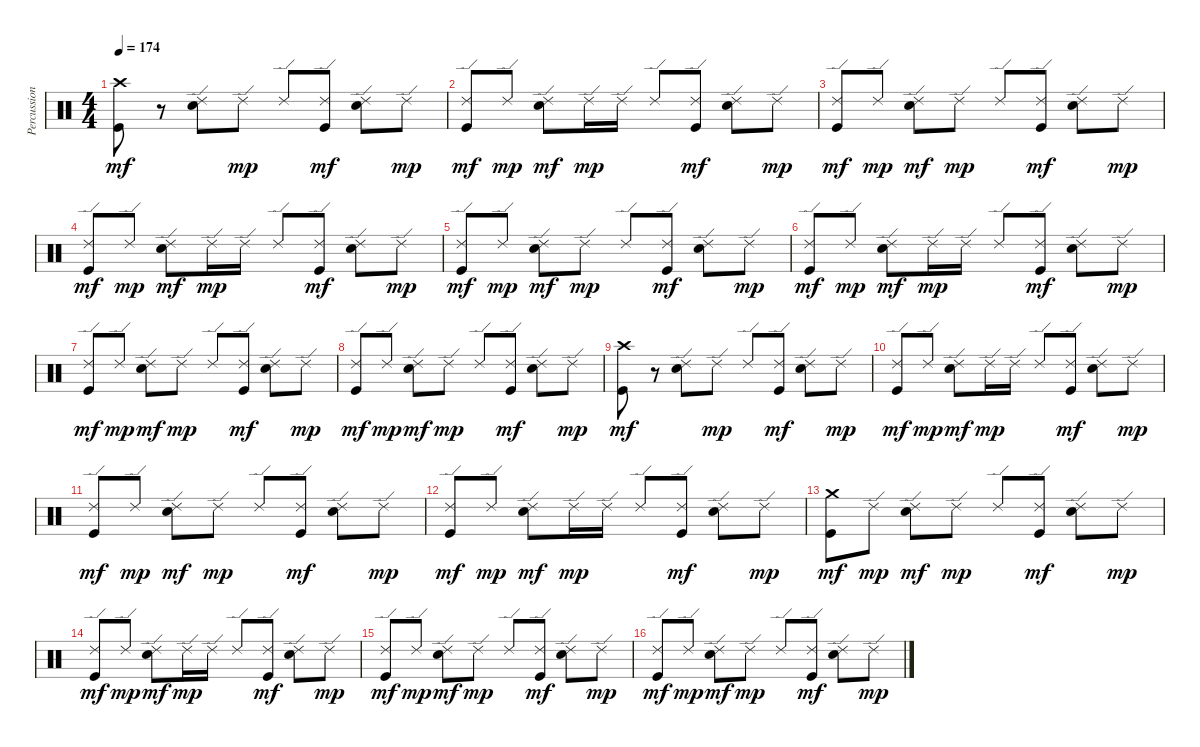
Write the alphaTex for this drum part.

\track ("Percussion" "Percussion") {instrument percussion}
\staff {score}
\articulation defaults
\ts (4 4)
\tempo 174
\clef neutral
\ks c
("Crash high (hit)" "Kick (hit)").8{dy mf} r.8 ("Ride (edge) 2" "Electric Snare (hit)").8 "Ride (edge) 2".8{dy mp} "Ride (edge) 2".8 ("Ride (edge) 2" "Kick (hit)").8{dy mf} ("Ride (edge) 2" "Electric Snare (hit)").8 "Ride (edge) 2".8{dy mp} |
("Ride (edge) 2" "Kick (hit)").8{dy mf} "Ride (edge) 2".8{dy mp} ("Ride (edge) 2" "Electric Snare (hit)").8{dy mf} "Ride (edge) 2".16{dy mp} "Ride (edge) 2".16 "Ride (edge) 2".8 ("Ride (edge) 2" "Kick (hit)").8{dy mf} ("Ride (edge) 2" "Electric Snare (hit)").8 "Ride (edge) 2".8{dy mp} |
("Ride (edge) 2" "Kick (hit)").8{dy mf} "Ride (edge) 2".8{dy mp} ("Ride (edge) 2" "Electric Snare (hit)").8{dy mf} "Ride (edge) 2".8{dy mp} "Ride (edge) 2".8 ("Ride (edge) 2" "Kick (hit)").8{dy mf} ("Ride (edge) 2" "Electric Snare (hit)").8 "Ride (edge) 2".8{dy mp} |
("Ride (edge) 2" "Kick (hit)").8{dy mf} "Ride (edge) 2".8{dy mp} ("Ride (edge) 2" "Electric Snare (hit)").8{dy mf} "Ride (edge) 2".16{dy mp} "Ride (edge) 2".16 "Ride (edge) 2".8 ("Ride (edge) 2" "Kick (hit)").8{dy mf} ("Ride (edge) 2" "Electric Snare (hit)").8 "Ride (edge) 2".8{dy mp} |
("Ride (edge) 2" "Kick (hit)").8{dy mf} "Ride (edge) 2".8{dy mp} ("Ride (edge) 2" "Electric Snare (hit)").8{dy mf} "Ride (edge) 2".8{dy mp} "Ride (edge) 2".8 ("Ride (edge) 2" "Kick (hit)").8{dy mf} ("Ride (edge) 2" "Electric Snare (hit)").8 "Ride (edge) 2".8{dy mp} |
("Ride (edge) 2" "Kick (hit)").8{dy mf} "Ride (edge) 2".8{dy mp} ("Ride (edge) 2" "Electric Snare (hit)").8{dy mf} "Ride (edge) 2".16{dy mp} "Ride (edge) 2".16 "Ride (edge) 2".8 ("Ride (edge) 2" "Kick (hit)").8{dy mf} ("Ride (edge) 2" "Electric Snare (hit)").8 "Ride (edge) 2".8{dy mp} |
("Ride (edge) 2" "Kick (hit)").8{dy mf} "Ride (edge) 2".8{dy mp} ("Ride (edge) 2" "Electric Snare (hit)").8{dy mf} "Ride (edge) 2".8{dy mp} "Ride (edge) 2".8 ("Ride (edge) 2" "Kick (hit)").8{dy mf} ("Ride (edge) 2" "Electric Snare (hit)").8 "Ride (edge) 2".8{dy mp} |
("Ride (edge) 2" "Kick (hit)").8{dy mf} "Ride (edge) 2".8{dy mp} ("Ride (edge) 2" "Electric Snare (hit)").8{dy mf} "Ride (edge) 2".8{dy mp} "Ride (edge) 2".8 ("Ride (edge) 2" "Kick (hit)").8{dy mf} ("Ride (edge) 2" "Electric Snare (hit)").8 "Ride (edge) 2".8{dy mp} |
("Crash high (hit)" "Kick (hit)").8{dy mf} r.8 ("Ride (edge) 2" "Electric Snare (hit)").8 "Ride (edge) 2".8{dy mp} "Ride (edge) 2".8 ("Ride (edge) 2" "Kick (hit)").8{dy mf} ("Ride (edge) 2" "Electric Snare (hit)").8 "Ride (edge) 2".8{dy mp} |
("Ride (edge) 2" "Kick (hit)").8{dy mf} "Ride (edge) 2".8{dy mp} ("Ride (edge) 2" "Electric Snare (hit)").8{dy mf} "Ride (edge) 2".16{dy mp} "Ride (edge) 2".16 "Ride (edge) 2".8 ("Ride (edge) 2" "Kick (hit)").8{dy mf} ("Ride (edge) 2" "Electric Snare (hit)").8 "Ride (edge) 2".8{dy mp} |
("Ride (edge) 2" "Kick (hit)").8{dy mf} "Ride (edge) 2".8{dy mp} ("Ride (edge) 2" "Electric Snare (hit)").8{dy mf} "Ride (edge) 2".8{dy mp} "Ride (edge) 2".8 ("Ride (edge) 2" "Kick (hit)").8{dy mf} ("Ride (edge) 2" "Electric Snare (hit)").8 "Ride (edge) 2".8{dy mp} |
("Ride (edge) 2" "Kick (hit)").8{dy mf} "Ride (edge) 2".8{dy mp} ("Ride (edge) 2" "Electric Snare (hit)").8{dy mf} "Ride (edge) 2".16{dy mp} "Ride (edge) 2".16 "Ride (edge) 2".8 ("Ride (edge) 2" "Kick (hit)").8{dy mf} ("Ride (edge) 2" "Electric Snare (hit)").8 "Ride (edge) 2".8{dy mp} |
("Crash medium (hit)" "Kick (hit)").8{dy mf} "Ride (edge) 2".8{dy mp} ("Ride (edge) 2" "Electric Snare (hit)").8{dy mf} "Ride (edge) 2".8{dy mp} "Ride (edge) 2".8 ("Ride (edge) 2" "Kick (hit)").8{dy mf} ("Ride (edge) 2" "Electric Snare (hit)").8 "Ride (edge) 2".8{dy mp} |
("Ride (edge) 2" "Kick (hit)").8{dy mf} "Ride (edge) 2".8{dy mp} ("Ride (edge) 2" "Electric Snare (hit)").8{dy mf} "Ride (edge) 2".16{dy mp} "Ride (edge) 2".16 "Ride (edge) 2".8 ("Ride (edge) 2" "Kick (hit)").8{dy mf} ("Ride (edge) 2" "Electric Snare (hit)").8 "Ride (edge) 2".8{dy mp} |
("Ride (edge) 2" "Kick (hit)").8{dy mf} "Ride (edge) 2".8{dy mp} ("Ride (edge) 2" "Electric Snare (hit)").8{dy mf} "Ride (edge) 2".8{dy mp} "Ride (edge) 2".8 ("Ride (edge) 2" "Kick (hit)").8{dy mf} ("Ride (edge) 2" "Electric Snare (hit)").8 "Ride (edge) 2".8{dy mp} |
("Ride (edge) 2" "Kick (hit)").8{dy mf} "Ride (edge) 2".8{dy mp} ("Ride (edge) 2" "Electric Snare (hit)").8{dy mf} "Ride (edge) 2".8{dy mp} "Ride (edge) 2".8 ("Ride (edge) 2" "Kick (hit)").8{dy mf} ("Ride (edge) 2" "Electric Snare (hit)").8 "Ride (edge) 2".8{dy mp}
